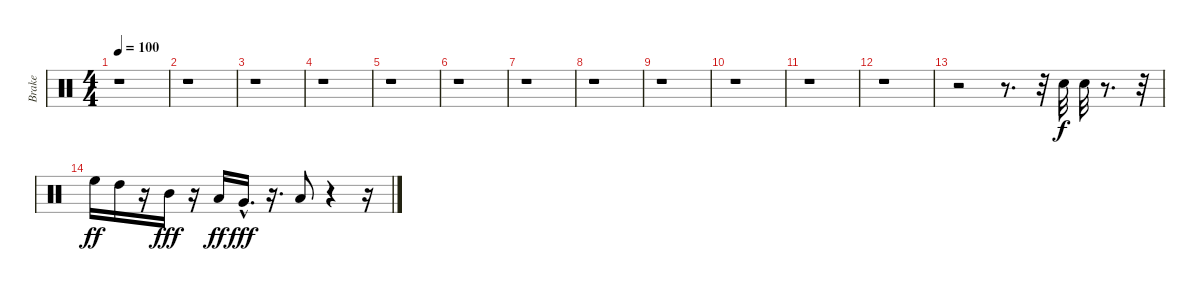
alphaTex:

\track ("Brake" "Brake") {instrument percussion}
\staff {score}
\articulation defaults
\ts (4 4)
\tempo 100
\clef neutral
\ks c
r.1{dy f} |
r.1 |
r.1 |
r.1 |
r.1 |
r.1 |
r.1 |
r.1 |
r.1 |
r.1 |
r.1 |
r.1 |
r.2 r.8{d} r.32 "Metronome (bell)".32 "Metronome (bell)".32 r.8{d} r.32 |
"High Floor Tom (hit)".16{dy ff} "High Tom (hit)".16 r.16 "Mid Tom (hit)".16{dy fff} r.16 "Low Tom (hit)".16{dy ff} "Very Low Tom (hit)"{hac}.16{d dy fff} r.16{d} "Low Floor Tom (hit)".8 r.4 r.16
